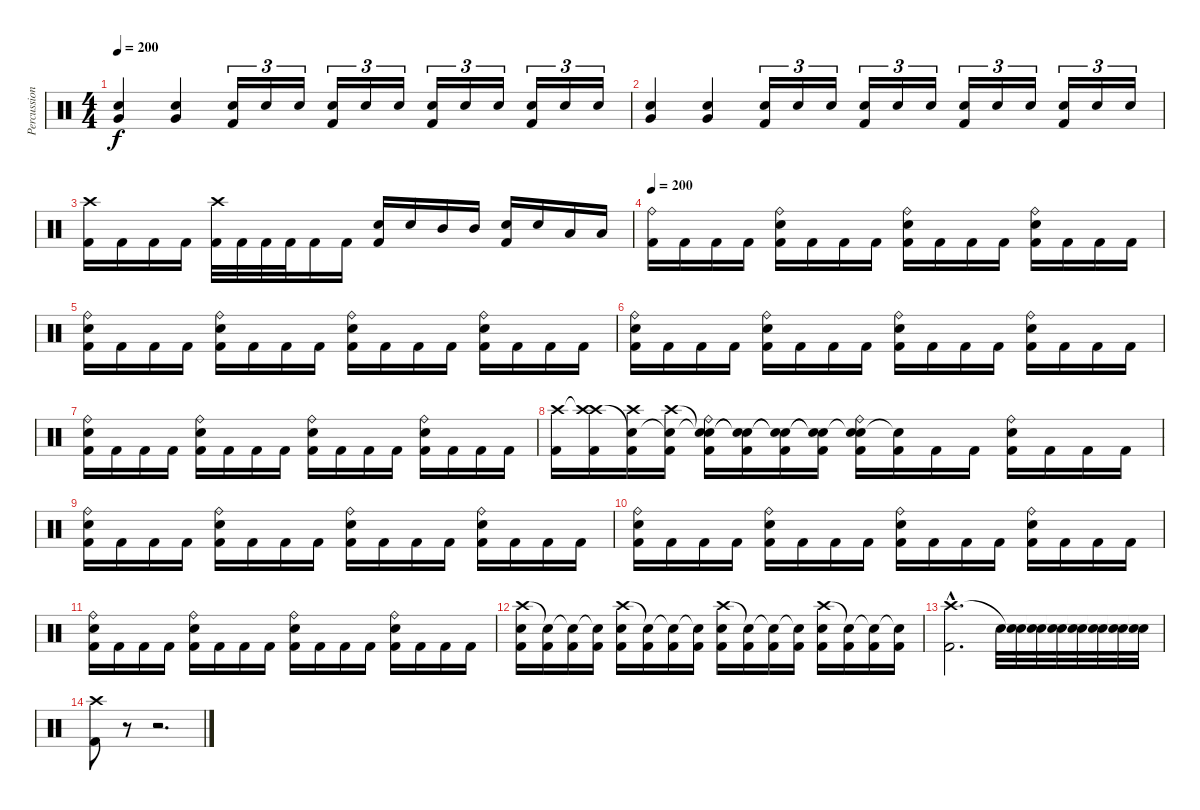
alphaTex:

\track ("Percussion" "Percussion") {instrument percussion}
\staff {score}
\articulation defaults
\ts (4 4)
\tempo 200
\clef neutral
\ks c
("Snare (hit) 2" "Very Low Tom (hit)").4{dy f} ("Snare (hit) 2" "Very Low Tom (hit)").4 ("Snare (hit) 2" "Kick (hit) 2").16{tu (3 2)} "Snare (hit) 2".16{tu (3 2)} "Snare (hit) 2".16{tu (3 2)} ("Snare (hit) 2" "Kick (hit) 2").16{tu (3 2)} "Snare (hit) 2".16{tu (3 2)} "Snare (hit) 2".16{tu (3 2)} ("Snare (hit) 2" "Kick (hit) 2").16{tu (3 2)} "Snare (hit) 2".16{tu (3 2)} "Snare (hit) 2".16{tu (3 2)} ("Snare (hit) 2" "Kick (hit) 2").16{tu (3 2)} "Snare (hit) 2".16{tu (3 2)} "Snare (hit) 2".16{tu (3 2)} |
("Snare (hit) 2" "Very Low Tom (hit)").4 ("Snare (hit) 2" "Very Low Tom (hit)").4 ("Snare (hit) 2" "Kick (hit) 2").16{tu (3 2)} "Snare (hit) 2".16{tu (3 2)} "Snare (hit) 2".16{tu (3 2)} ("Snare (hit) 2" "Kick (hit) 2").16{tu (3 2)} "Snare (hit) 2".16{tu (3 2)} "Snare (hit) 2".16{tu (3 2)} ("Snare (hit) 2" "Kick (hit) 2").16{tu (3 2)} "Snare (hit) 2".16{tu (3 2)} "Snare (hit) 2".16{tu (3 2)} ("Snare (hit) 2" "Kick (hit) 2").16{tu (3 2)} "Snare (hit) 2".16{tu (3 2)} "Snare (hit) 2".16{tu (3 2)} |
("Crash high (hit)" "Kick (hit) 2").16 "Kick (hit) 2".16 "Kick (hit) 2".16 "Kick (hit) 2".16 ("Crash high (hit)" "Kick (hit) 2").32 "Kick (hit) 2".32 "Kick (hit) 2".32 "Kick (hit) 2".32 "Kick (hit) 2".16 "Kick (hit) 2".16 ("Snare (hit) 2" "Kick (hit) 2").16 "Snare (hit) 2".16 "Mid Tom (hit)".16 "Mid Tom (hit)".16 ("Snare (hit) 2" "Kick (hit) 2").16 "Snare (hit) 2".16 "Low Tom (hit)".16 "Low Tom (hit)".16 |
\tempo 200
("Ride (bell)" "Kick (hit) 2").16 "Kick (hit) 2".16 "Kick (hit) 2".16 "Kick (hit) 2".16 ("Ride (bell)" "Snare (hit) 2" "Kick (hit) 2").16 "Kick (hit) 2".16 "Kick (hit) 2".16 "Kick (hit) 2".16 ("Ride (bell)" "Snare (hit) 2" "Kick (hit) 2").16 "Kick (hit) 2".16 "Kick (hit) 2".16 "Kick (hit) 2".16 ("Ride (bell)" "Snare (hit) 2" "Kick (hit) 2").16 "Kick (hit) 2".16 "Kick (hit) 2".16 "Kick (hit) 2".16 |
("Ride (bell)" "Snare (hit) 2" "Kick (hit) 2").16 "Kick (hit) 2".16 "Kick (hit) 2".16 "Kick (hit) 2".16 ("Ride (bell)" "Snare (hit) 2" "Kick (hit) 2").16 "Kick (hit) 2".16 "Kick (hit) 2".16 "Kick (hit) 2".16 ("Ride (bell)" "Snare (hit) 2" "Kick (hit) 2").16 "Kick (hit) 2".16 "Kick (hit) 2".16 "Kick (hit) 2".16 ("Ride (bell)" "Snare (hit) 2" "Kick (hit) 2").16 "Kick (hit) 2".16 "Kick (hit) 2".16 "Kick (hit) 2".16 |
("Ride (bell)" "Snare (hit) 2" "Kick (hit) 2").16 "Kick (hit) 2".16 "Kick (hit) 2".16 "Kick (hit) 2".16 ("Ride (bell)" "Snare (hit) 2" "Kick (hit) 2").16 "Kick (hit) 2".16 "Kick (hit) 2".16 "Kick (hit) 2".16 ("Ride (bell)" "Snare (hit) 2" "Kick (hit) 2").16 "Kick (hit) 2".16 "Kick (hit) 2".16 "Kick (hit) 2".16 ("Ride (bell)" "Snare (hit) 2" "Kick (hit) 2").16 "Kick (hit) 2".16 "Kick (hit) 2".16 "Kick (hit) 2".16 |
("Ride (bell)" "Snare (hit) 2" "Kick (hit) 2").16 "Kick (hit) 2".16 "Kick (hit) 2".16 "Kick (hit) 2".16 ("Ride (bell)" "Snare (hit) 2" "Kick (hit) 2").16 "Kick (hit) 2".16 "Kick (hit) 2".16 "Kick (hit) 2".16 ("Ride (bell)" "Snare (hit) 2" "Kick (hit) 2").16 "Kick (hit) 2".16 "Kick (hit) 2".16 "Kick (hit) 2".16 ("Ride (bell)" "Snare (hit) 2" "Kick (hit) 2").16 "Kick (hit) 2".16 "Kick (hit) 2".16 "Kick (hit) 2".16 |
("Crash high (hit)" "Kick (hit) 2").16 ("Crash high (hit)"{t} "Crash high (hit)" "Kick (hit) 2").16 ("Crash high (hit)" "Snare (hit)"{t} "Kick (hit) 2").16 ("Crash high (hit)" "Snare (hit)"{t} "Kick (hit) 2").16 ("Snare (hit)"{t} "Snare (hit)"{t} "Ride (bell)" "Kick (hit) 2").16 ("Snare (hit)"{t} "Snare (hit)"{t} "Kick (hit) 2").16 ("Snare (hit)"{t} "Snare (hit)"{t} "Kick (hit) 2").16 ("Snare (hit)"{t} "Snare (hit)"{t} "Kick (hit) 2").16 ("Snare (hit)"{t} "Ride (bell)" "Snare (hit) 2" "Kick (hit) 2").16 ("Snare (hit)"{t} "Kick (hit) 2").16 "Kick (hit) 2".16 "Kick (hit) 2".16 ("Ride (bell)" "Snare (hit) 2" "Kick (hit) 2").16 "Kick (hit) 2".16 "Kick (hit) 2".16 "Kick (hit) 2".16 |
("Ride (bell)" "Snare (hit) 2" "Kick (hit) 2").16 "Kick (hit) 2".16 "Kick (hit) 2".16 "Kick (hit) 2".16 ("Ride (bell)" "Snare (hit) 2" "Kick (hit) 2").16 "Kick (hit) 2".16 "Kick (hit) 2".16 "Kick (hit) 2".16 ("Ride (bell)" "Snare (hit) 2" "Kick (hit) 2").16 "Kick (hit) 2".16 "Kick (hit) 2".16 "Kick (hit) 2".16 ("Ride (bell)" "Snare (hit) 2" "Kick (hit) 2").16 "Kick (hit) 2".16 "Kick (hit) 2".16 "Kick (hit) 2".16 |
("Ride (bell)" "Snare (hit) 2" "Kick (hit) 2").16 "Kick (hit) 2".16 "Kick (hit) 2".16 "Kick (hit) 2".16 ("Ride (bell)" "Snare (hit) 2" "Kick (hit) 2").16 "Kick (hit) 2".16 "Kick (hit) 2".16 "Kick (hit) 2".16 ("Ride (bell)" "Snare (hit) 2" "Kick (hit) 2").16 "Kick (hit) 2".16 "Kick (hit) 2".16 "Kick (hit) 2".16 ("Ride (bell)" "Snare (hit) 2" "Kick (hit) 2").16 "Kick (hit) 2".16 "Kick (hit) 2".16 "Kick (hit) 2".16 |
("Ride (bell)" "Snare (hit) 2" "Kick (hit) 2").16 "Kick (hit) 2".16 "Kick (hit) 2".16 "Kick (hit) 2".16 ("Ride (bell)" "Snare (hit) 2" "Kick (hit) 2").16 "Kick (hit) 2".16 "Kick (hit) 2".16 "Kick (hit) 2".16 ("Ride (bell)" "Snare (hit) 2" "Kick (hit) 2").16 "Kick (hit) 2".16 "Kick (hit) 2".16 "Kick (hit) 2".16 ("Ride (bell)" "Snare (hit) 2" "Kick (hit) 2").16 "Kick (hit) 2".16 "Kick (hit) 2".16 "Kick (hit) 2".16 |
("Crash high (hit)" "Snare (hit) 2" "Kick (hit) 2").16 ("Snare (hit)"{t} "Kick (hit) 2").16 ("Snare (hit)"{t} "Kick (hit) 2").16 ("Snare (hit)"{t} "Kick (hit) 2").16 ("Crash high (hit)" "Snare (hit) 2" "Kick (hit) 2").16 ("Snare (hit)"{t} "Kick (hit) 2").16 ("Snare (hit)"{t} "Kick (hit) 2").16 ("Snare (hit)"{t} "Kick (hit) 2").16 ("Crash high (hit)" "Snare (hit) 2" "Kick (hit) 2").16 ("Snare (hit)"{t} "Kick (hit) 2").16 ("Snare (hit)"{t} "Kick (hit) 2").16 ("Snare (hit)"{t} "Kick (hit) 2").16 ("Crash high (hit)" "Snare (hit) 2" "Kick (hit) 2").16 ("Snare (hit)"{t} "Kick (hit) 2").16 ("Snare (hit)"{t} "Kick (hit) 2").16 ("Snare (hit)"{t} "Kick (hit) 2").16 |
("Kick (hit) 2"{hac} "Crash high (hit)"{hac}).2{d} "Snare (hit) 2".32 ("Snare (hit) 2" "Snare (hit) 2"{t}).32 ("Snare (hit)"{t} "Snare (hit) 2").32 ("Snare (hit) 2" "Snare (hit) 2"{t}).32 ("Snare (hit)"{t} "Snare (hit) 2").32 ("Snare (hit) 2" "Snare (hit) 2"{t}).32 ("Snare (hit)"{t} "Snare (hit) 2").32 ("Snare (hit) 2" "Snare (hit) 2"{t}).32 |
("Kick (hit) 2" "Crash high (hit)").8 r.8 r.2{d}
